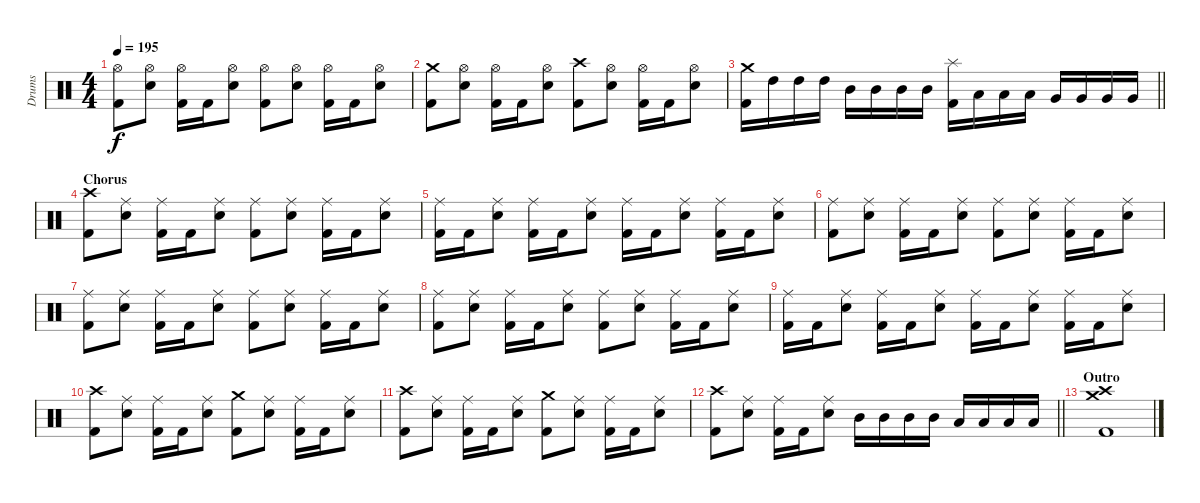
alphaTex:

\track ("Drums" "Drums") {instrument percussion}
\staff {score}
\articulation defaults
\ts (4 4)
\tempo 195
\clef neutral
\ks c
("Hi-Hat (open)" "Kick (hit) 2").8{dy f} ("Hi-Hat (open)" "Electric Snare (hit)").8 ("Hi-Hat (open)" "Kick (hit) 2").16 "Kick (hit) 2".16 ("Hi-Hat (open)" "Electric Snare (hit)").8 ("Hi-Hat (open)" "Kick (hit) 2").8 ("Hi-Hat (open)" "Electric Snare (hit)").8 ("Hi-Hat (open)" "Kick (hit) 2").16 "Kick (hit) 2".16 ("Hi-Hat (open)" "Electric Snare (hit)").8 |
("Crash medium (hit)" "Kick (hit) 2").8 ("Hi-Hat (open)" "Electric Snare (hit)").8 ("Hi-Hat (open)" "Kick (hit) 2").16 "Kick (hit) 2".16 ("Hi-Hat (open)" "Electric Snare (hit)").8 ("Crash high (hit)" "Kick (hit) 2").8 ("Hi-Hat (open)" "Electric Snare (hit)").8 ("Hi-Hat (open)" "Kick (hit) 2").16 "Kick (hit) 2".16 ("Hi-Hat (open)" "Electric Snare (hit)").8 |
\barLineRight lightlight
("Crash medium (hit)" "Kick (hit) 2").16 "High Tom (hit)".16 "High Tom (hit)".16 "High Tom (hit)".16 "Mid Tom (hit)".16 "Mid Tom (hit)".16 "Mid Tom (hit)".16 "Mid Tom (hit)".16 ("Splash (hit)" "Kick (hit) 2").16 "Low Tom (hit)".16 "Low Tom (hit)".16 "Low Tom (hit)".16 "Very Low Tom (hit)".16 "Very Low Tom (hit)".16 "Very Low Tom (hit)".16 "Very Low Tom (hit)".16 |
\section ("" "Chorus")
("Crash high (hit)" "Kick (hit) 2").8 ("Ride (middle)" "Electric Snare (hit)").8 ("Ride (middle)" "Kick (hit) 2").16 "Kick (hit) 2".16 ("Ride (middle)" "Electric Snare (hit)").8 ("Ride (middle)" "Kick (hit) 2").8 ("Ride (middle)" "Electric Snare (hit)").8 ("Ride (middle)" "Kick (hit) 2").16 "Kick (hit) 2".16 ("Ride (middle)" "Electric Snare (hit)").8 |
("Ride (middle)" "Kick (hit) 2").16 "Kick (hit) 2".16 ("Ride (middle)" "Electric Snare (hit)").8 ("Ride (middle)" "Kick (hit) 2").16 "Kick (hit) 2".16 ("Ride (middle)" "Electric Snare (hit)").8 ("Ride (middle)" "Kick (hit) 2").16 "Kick (hit) 2".16 ("Ride (middle)" "Electric Snare (hit)").8 ("Ride (middle)" "Kick (hit) 2").16 "Kick (hit) 2".16 ("Ride (middle)" "Electric Snare (hit)").8 |
("Ride (middle)" "Kick (hit) 2").8 ("Ride (middle)" "Electric Snare (hit)").8 ("Ride (middle)" "Kick (hit) 2").16 "Kick (hit) 2".16 ("Ride (middle)" "Electric Snare (hit)").8 ("Ride (middle)" "Kick (hit) 2").8 ("Ride (middle)" "Electric Snare (hit)").8 ("Ride (middle)" "Kick (hit) 2").16 "Kick (hit) 2".16 ("Ride (middle)" "Electric Snare (hit)").8 |
("Ride (middle)" "Kick (hit) 2").8 ("Ride (middle)" "Electric Snare (hit)").8 ("Ride (middle)" "Kick (hit) 2").16 "Kick (hit) 2".16 ("Ride (middle)" "Electric Snare (hit)").8 ("Ride (middle)" "Kick (hit) 2").8 ("Ride (middle)" "Electric Snare (hit)").8 ("Ride (middle)" "Kick (hit) 2").16 "Kick (hit) 2".16 ("Ride (middle)" "Electric Snare (hit)").8 |
("Ride (middle)" "Kick (hit) 2").8 ("Ride (middle)" "Electric Snare (hit)").8 ("Ride (middle)" "Kick (hit) 2").16 "Kick (hit) 2".16 ("Ride (middle)" "Electric Snare (hit)").8 ("Ride (middle)" "Kick (hit) 2").8 ("Ride (middle)" "Electric Snare (hit)").8 ("Ride (middle)" "Kick (hit) 2").16 "Kick (hit) 2".16 ("Ride (middle)" "Electric Snare (hit)").8 |
("Ride (middle)" "Kick (hit) 2").16 "Kick (hit) 2".16 ("Ride (middle)" "Electric Snare (hit)").8 ("Ride (middle)" "Kick (hit) 2").16 "Kick (hit) 2".16 ("Ride (middle)" "Electric Snare (hit)").8 ("Ride (middle)" "Kick (hit) 2").16 "Kick (hit) 2".16 ("Ride (middle)" "Electric Snare (hit)").8 ("Ride (middle)" "Kick (hit) 2").16 "Kick (hit) 2".16 ("Ride (middle)" "Electric Snare (hit)").8 |
("Crash high (hit)" "Kick (hit) 2").8 ("Ride (middle)" "Electric Snare (hit)").8 ("Ride (middle)" "Kick (hit) 2").16 "Kick (hit) 2".16 ("Ride (middle)" "Electric Snare (hit)").8 ("Crash medium (hit)" "Kick (hit) 2").8 ("Ride (middle)" "Electric Snare (hit)").8 ("Ride (middle)" "Kick (hit) 2").16 "Kick (hit) 2".16 ("Ride (middle)" "Electric Snare (hit)").8 |
("Crash high (hit)" "Kick (hit) 2").8 ("Ride (middle)" "Electric Snare (hit)").8 ("Ride (middle)" "Kick (hit) 2").16 "Kick (hit) 2".16 ("Ride (middle)" "Electric Snare (hit)").8 ("Crash medium (hit)" "Kick (hit) 2").8 ("Ride (middle)" "Electric Snare (hit)").8 ("Ride (middle)" "Kick (hit) 2").16 "Kick (hit) 2".16 ("Ride (middle)" "Electric Snare (hit)").8 |
\barLineRight lightlight
("Crash high (hit)" "Kick (hit) 2").8 ("Ride (middle)" "Electric Snare (hit)").8 ("Ride (middle)" "Kick (hit) 2").16 "Kick (hit) 2".16 ("Ride (middle)" "Electric Snare (hit)").8 "Mid Tom (hit)".16 "Mid Tom (hit)".16 "Mid Tom (hit)".16 "Mid Tom (hit)".16 "Low Tom (hit)".16 "Low Tom (hit)".16 "Low Tom (hit)".16 "Low Tom (hit)".16 |
\section ("" "Outro")
("Crash medium (hit)" "Crash high (hit)" "Kick (hit) 2").1
